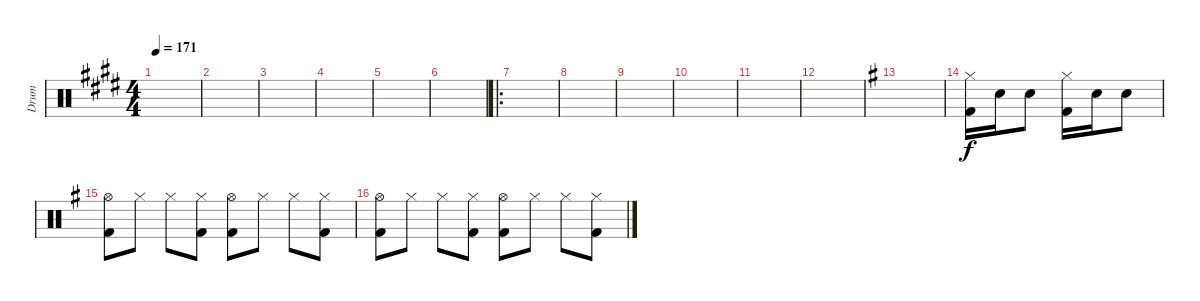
\track ("Drum" "Drum") {instrument percussion}
\staff {score}
\articulation defaults
\ts (4 4)
\tempo 171
\clef neutral
\ks c#minor
|
|
|
|
|
|
\ro
|
|
|
|
|
|
\ks g
|
("Hi-Hat (closed)" "Kick (hit) 2").16 "Snare (hit) 2".16 "Snare (hit) 2".8 ("Hi-Hat (closed)" "Kick (hit) 2").16 "Snare (hit) 2".16 "Snare (hit) 2".8 |
("Hi-Hat (open)" "Kick (hit) 2").8 "Hi-Hat (closed)".8 "Hi-Hat (closed)".8 ("Hi-Hat (closed)" "Kick (hit) 2").8 ("Hi-Hat (open)" "Kick (hit) 2").8 "Hi-Hat (closed)".8 "Hi-Hat (closed)".8 ("Hi-Hat (closed)" "Kick (hit) 2").8 |
("Hi-Hat (open)" "Kick (hit) 2").8 "Hi-Hat (closed)".8 "Hi-Hat (closed)".8 ("Hi-Hat (closed)" "Kick (hit) 2").8 ("Hi-Hat (open)" "Kick (hit) 2").8 "Hi-Hat (closed)".8 "Hi-Hat (closed)".8 ("Hi-Hat (closed)" "Kick (hit) 2").8
